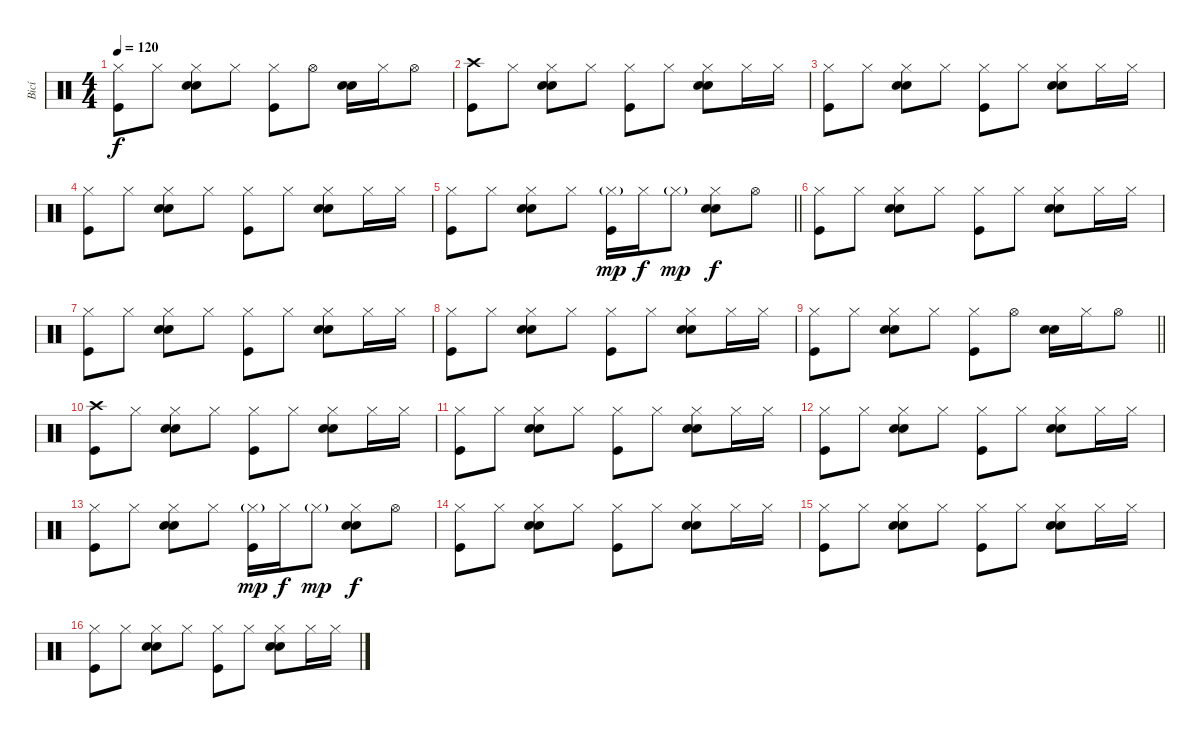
\track ("Bicí" "Bicí") {instrument percussion}
\staff {score}
\articulation defaults
\ts (4 4)
\tempo 120
\clef neutral
\ks c
("Hi-Hat (closed)" "Kick (hit)").8{dy f} "Hi-Hat (closed)".8 ("Hi-Hat (closed)" "Hand Clap (hit)" "Electric Snare (hit)").8 "Hi-Hat (closed)".8 ("Hi-Hat (closed)" "Kick (hit)").8 "Hi-Hat (open)".8 ("Hand Clap (hit)" "Electric Snare (hit)").16 "Hi-Hat (closed)".16 "Hi-Hat (open)".8 |
("Crash high (hit)" "Kick (hit)").8 "Hi-Hat (closed)".8 ("Hi-Hat (closed)" "Hand Clap (hit)" "Electric Snare (hit)").8 "Hi-Hat (closed)".8 ("Hi-Hat (closed)" "Kick (hit)").8 "Hi-Hat (closed)".8 ("Hi-Hat (closed)" "Hand Clap (hit)" "Electric Snare (hit)").8 "Hi-Hat (closed)".16 "Hi-Hat (closed)".16 |
("Hi-Hat (closed)" "Kick (hit)").8 "Hi-Hat (closed)".8 ("Hi-Hat (closed)" "Hand Clap (hit)" "Electric Snare (hit)").8 "Hi-Hat (closed)".8 ("Hi-Hat (closed)" "Kick (hit)").8 "Hi-Hat (closed)".8 ("Hi-Hat (closed)" "Hand Clap (hit)" "Electric Snare (hit)").8 "Hi-Hat (closed)".16 "Hi-Hat (closed)".16 |
("Hi-Hat (closed)" "Kick (hit)").8 "Hi-Hat (closed)".8 ("Hi-Hat (closed)" "Hand Clap (hit)" "Electric Snare (hit)").8 "Hi-Hat (closed)".8 ("Hi-Hat (closed)" "Kick (hit)").8 "Hi-Hat (closed)".8 ("Hi-Hat (closed)" "Hand Clap (hit)" "Electric Snare (hit)").8 "Hi-Hat (closed)".16 "Hi-Hat (closed)".16 |
\barLineRight lightlight
("Hi-Hat (closed)" "Kick (hit)").8 "Hi-Hat (closed)".8 ("Hi-Hat (closed)" "Hand Clap (hit)" "Electric Snare (hit)").8 "Hi-Hat (closed)".8 ("Hi-Hat (closed)"{g} "Kick (hit)").16{dy mp} "Hi-Hat (closed)".16{dy f} "Hi-Hat (closed)"{g}.8{dy mp} ("Hi-Hat (closed)" "Hand Clap (hit)" "Electric Snare (hit)").8{dy f} "Hi-Hat (open)".8 |
\section ("" "")
("Hi-Hat (closed)" "Kick (hit)").8 "Hi-Hat (closed)".8 ("Hi-Hat (closed)" "Hand Clap (hit)" "Electric Snare (hit)").8 "Hi-Hat (closed)".8 ("Hi-Hat (closed)" "Kick (hit)").8 "Hi-Hat (closed)".8 ("Hi-Hat (closed)" "Hand Clap (hit)" "Electric Snare (hit)").8 "Hi-Hat (closed)".16 "Hi-Hat (closed)".16 |
("Hi-Hat (closed)" "Kick (hit)").8 "Hi-Hat (closed)".8 ("Hi-Hat (closed)" "Hand Clap (hit)" "Electric Snare (hit)").8 "Hi-Hat (closed)".8 ("Hi-Hat (closed)" "Kick (hit)").8 "Hi-Hat (closed)".8 ("Hi-Hat (closed)" "Hand Clap (hit)" "Electric Snare (hit)").8 "Hi-Hat (closed)".16 "Hi-Hat (closed)".16 |
("Hi-Hat (closed)" "Kick (hit)").8 "Hi-Hat (closed)".8 ("Hi-Hat (closed)" "Hand Clap (hit)" "Electric Snare (hit)").8 "Hi-Hat (closed)".8 ("Hi-Hat (closed)" "Kick (hit)").8 "Hi-Hat (closed)".8 ("Hi-Hat (closed)" "Hand Clap (hit)" "Electric Snare (hit)").8 "Hi-Hat (closed)".16 "Hi-Hat (closed)".16 |
\barLineRight lightlight
("Hi-Hat (closed)" "Kick (hit)").8 "Hi-Hat (closed)".8 ("Hi-Hat (closed)" "Hand Clap (hit)" "Electric Snare (hit)").8 "Hi-Hat (closed)".8 ("Hi-Hat (closed)" "Kick (hit)").8 "Hi-Hat (open)".8 ("Hand Clap (hit)" "Electric Snare (hit)").16 "Hi-Hat (closed)".16 "Hi-Hat (open)".8 |
("Crash high (hit)" "Kick (hit)").8 "Hi-Hat (closed)".8 ("Hi-Hat (closed)" "Hand Clap (hit)" "Electric Snare (hit)").8 "Hi-Hat (closed)".8 ("Hi-Hat (closed)" "Kick (hit)").8 "Hi-Hat (closed)".8 ("Hi-Hat (closed)" "Hand Clap (hit)" "Electric Snare (hit)").8 "Hi-Hat (closed)".16 "Hi-Hat (closed)".16 |
("Hi-Hat (closed)" "Kick (hit)").8 "Hi-Hat (closed)".8 ("Hi-Hat (closed)" "Hand Clap (hit)" "Electric Snare (hit)").8 "Hi-Hat (closed)".8 ("Hi-Hat (closed)" "Kick (hit)").8 "Hi-Hat (closed)".8 ("Hi-Hat (closed)" "Hand Clap (hit)" "Electric Snare (hit)").8 "Hi-Hat (closed)".16 "Hi-Hat (closed)".16 |
("Hi-Hat (closed)" "Kick (hit)").8 "Hi-Hat (closed)".8 ("Hi-Hat (closed)" "Hand Clap (hit)" "Electric Snare (hit)").8 "Hi-Hat (closed)".8 ("Hi-Hat (closed)" "Kick (hit)").8 "Hi-Hat (closed)".8 ("Hi-Hat (closed)" "Hand Clap (hit)" "Electric Snare (hit)").8 "Hi-Hat (closed)".16 "Hi-Hat (closed)".16 |
("Hi-Hat (closed)" "Kick (hit)").8 "Hi-Hat (closed)".8 ("Hi-Hat (closed)" "Hand Clap (hit)" "Electric Snare (hit)").8 "Hi-Hat (closed)".8 ("Hi-Hat (closed)"{g} "Kick (hit)").16{dy mp} "Hi-Hat (closed)".16{dy f} "Hi-Hat (closed)"{g}.8{dy mp} ("Hi-Hat (closed)" "Hand Clap (hit)" "Electric Snare (hit)").8{dy f} "Hi-Hat (open)".8 |
("Hi-Hat (closed)" "Kick (hit)").8 "Hi-Hat (closed)".8 ("Hi-Hat (closed)" "Hand Clap (hit)" "Electric Snare (hit)").8 "Hi-Hat (closed)".8 ("Hi-Hat (closed)" "Kick (hit)").8 "Hi-Hat (closed)".8 ("Hi-Hat (closed)" "Hand Clap (hit)" "Electric Snare (hit)").8 "Hi-Hat (closed)".16 "Hi-Hat (closed)".16 |
("Hi-Hat (closed)" "Kick (hit)").8 "Hi-Hat (closed)".8 ("Hi-Hat (closed)" "Hand Clap (hit)" "Electric Snare (hit)").8 "Hi-Hat (closed)".8 ("Hi-Hat (closed)" "Kick (hit)").8 "Hi-Hat (closed)".8 ("Hi-Hat (closed)" "Hand Clap (hit)" "Electric Snare (hit)").8 "Hi-Hat (closed)".16 "Hi-Hat (closed)".16 |
("Hi-Hat (closed)" "Kick (hit)").8 "Hi-Hat (closed)".8 ("Hi-Hat (closed)" "Hand Clap (hit)" "Electric Snare (hit)").8 "Hi-Hat (closed)".8 ("Hi-Hat (closed)" "Kick (hit)").8 "Hi-Hat (closed)".8 ("Hi-Hat (closed)" "Hand Clap (hit)" "Electric Snare (hit)").8 "Hi-Hat (closed)".16 "Hi-Hat (closed)".16
